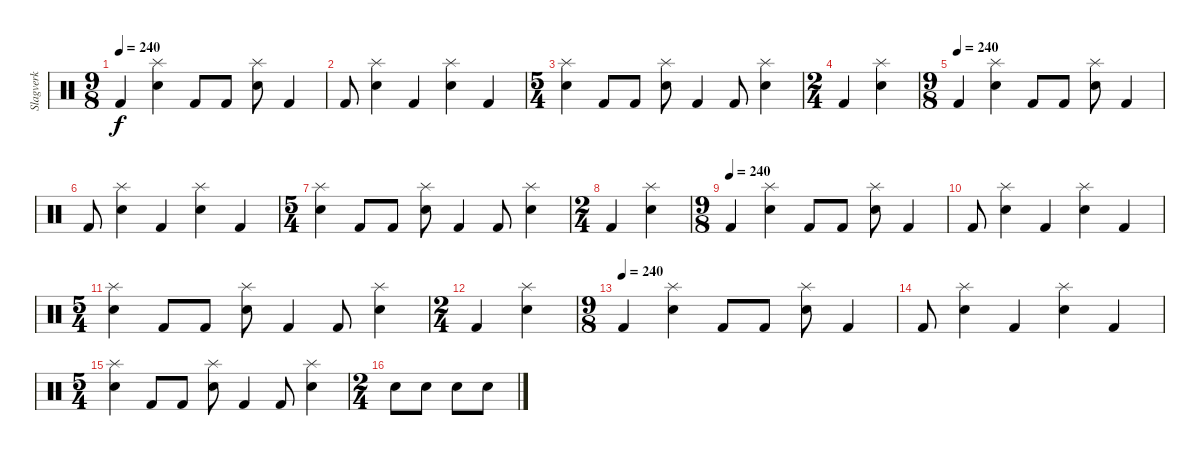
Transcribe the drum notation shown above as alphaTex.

\track ("Slagverk" "Slagverk") {instrument percussion}
\staff {score}
\articulation defaults
\ts (9 8)
\tempo 240
\clef neutral
\ks c "Kick (hit) 2".4{dy f}
("Splash (hit)" "Electric Snare (hit)").4 "Kick (hit) 2".8 "Kick (hit) 2".8 ("Splash (hit)" "Electric Snare (hit)").8 "Kick (hit) 2".4 |
"Kick (hit) 2".8 ("Splash (hit)" "Electric Snare (hit)").4 "Kick (hit) 2".4 ("Splash (hit)" "Electric Snare (hit)").4 "Kick (hit) 2".4 |
\ts (5 4)
("Splash (hit)" "Electric Snare (hit)").4 "Kick (hit) 2".8 "Kick (hit) 2".8 ("Splash (hit)" "Electric Snare (hit)").8 "Kick (hit) 2".4 "Kick (hit) 2".8 ("Splash (hit)" "Electric Snare (hit)").4 |
\ts (2 4)
"Kick (hit) 2".4 ("Splash (hit)" "Electric Snare (hit)").4 |
\ts (9 8)
\tempo (240)
"Kick (hit) 2".4 ("Splash (hit)" "Electric Snare (hit)").4 "Kick (hit) 2".8 "Kick (hit) 2".8 ("Splash (hit)" "Electric Snare (hit)").8 "Kick (hit) 2".4 |
"Kick (hit) 2".8 ("Splash (hit)" "Electric Snare (hit)").4 "Kick (hit) 2".4 ("Splash (hit)" "Electric Snare (hit)").4 "Kick (hit) 2".4 |
\ts (5 4)
("Splash (hit)" "Electric Snare (hit)").4 "Kick (hit) 2".8 "Kick (hit) 2".8 ("Splash (hit)" "Electric Snare (hit)").8 "Kick (hit) 2".4 "Kick (hit) 2".8 ("Splash (hit)" "Electric Snare (hit)").4 |
\ts (2 4)
"Kick (hit) 2".4 ("Splash (hit)" "Electric Snare (hit)").4 |
\ts (9 8)
\tempo (240)
"Kick (hit) 2".4 ("Splash (hit)" "Electric Snare (hit)").4 "Kick (hit) 2".8 "Kick (hit) 2".8 ("Splash (hit)" "Electric Snare (hit)").8 "Kick (hit) 2".4 |
"Kick (hit) 2".8 ("Splash (hit)" "Electric Snare (hit)").4 "Kick (hit) 2".4 ("Splash (hit)" "Electric Snare (hit)").4 "Kick (hit) 2".4 |
\ts (5 4)
("Splash (hit)" "Electric Snare (hit)").4 "Kick (hit) 2".8 "Kick (hit) 2".8 ("Splash (hit)" "Electric Snare (hit)").8 "Kick (hit) 2".4 "Kick (hit) 2".8 ("Splash (hit)" "Electric Snare (hit)").4 |
\ts (2 4)
"Kick (hit) 2".4 ("Splash (hit)" "Electric Snare (hit)").4 |
\ts (9 8)
\tempo (240)
"Kick (hit) 2".4 ("Splash (hit)" "Electric Snare (hit)").4 "Kick (hit) 2".8 "Kick (hit) 2".8 ("Splash (hit)" "Electric Snare (hit)").8 "Kick (hit) 2".4 |
"Kick (hit) 2".8 ("Splash (hit)" "Electric Snare (hit)").4 "Kick (hit) 2".4 ("Splash (hit)" "Electric Snare (hit)").4 "Kick (hit) 2".4 |
\ts (5 4)
("Splash (hit)" "Electric Snare (hit)").4 "Kick (hit) 2".8 "Kick (hit) 2".8 ("Splash (hit)" "Electric Snare (hit)").8 "Kick (hit) 2".4 "Kick (hit) 2".8 ("Splash (hit)" "Electric Snare (hit)").4 |
\ts (2 4)
"Electric Snare (hit)".8 "Electric Snare (hit)".8 "Electric Snare (hit)".8 "Electric Snare (hit)".8
